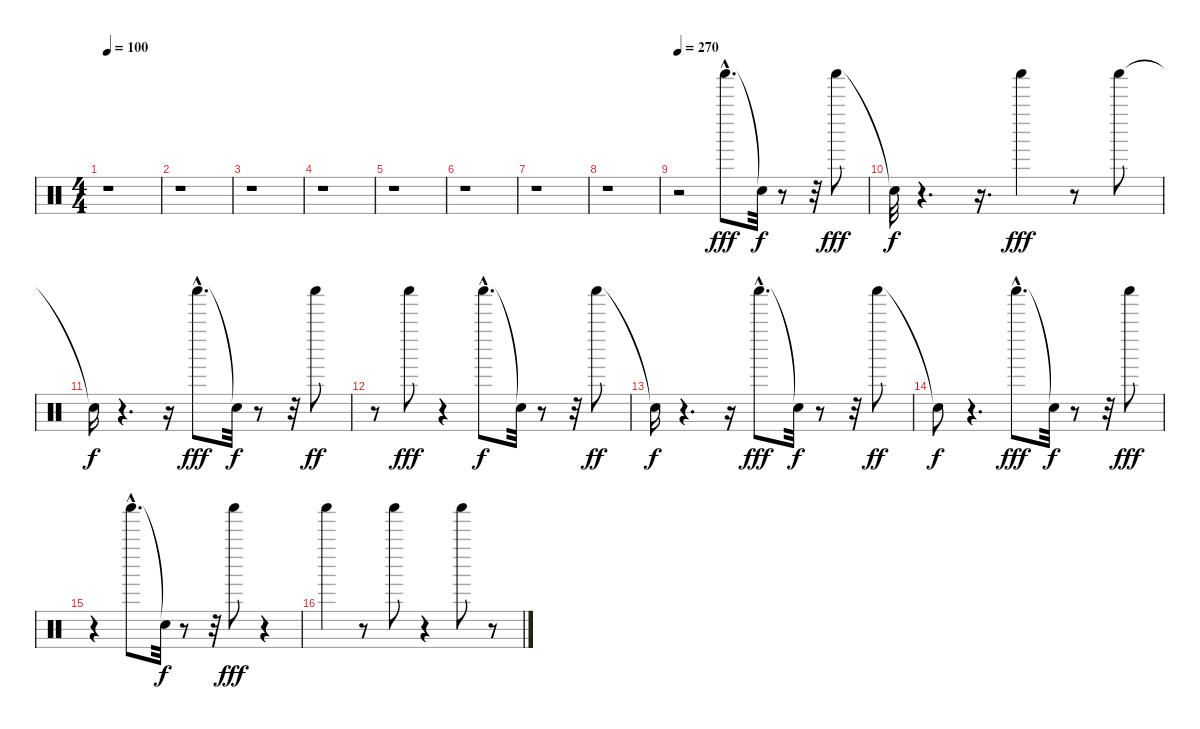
\track "" {instrument percussion}
\staff {score}
\articulation defaults
\ts (4 4)
\tempo 100
\clef neutral
\ks c
r.1{dy fff} |
r.1 |
r.1 |
r.1 |
r.1 |
r.1 |
r.1 |
r.1 |
\tempo 270
r.2 "Shaker (hit)"{hac}.8{d} "Snare (hit)"{t}.32{dy f} r.8 r.32 "Shaker (hit)".8{dy fff} |
"Snare (hit)"{t}.32{dy f} r.4{d} r.16{d} "Shaker (hit)".4{dy fff} r.8 "Shaker (hit)".8 |
"Snare (hit)"{t}.16{dy f} r.4{d} r.16 "Shaker (hit)"{hac}.8{d dy fff} "Snare (hit)"{t}.32{dy f} r.8 r.32 "Shaker (hit)".8{dy ff} |
r.8 "Shaker (hit)".8{dy fff} r.4 "Shaker (hit)"{hac}.8{d dy f} "Snare (hit)"{t}.32 r.8 r.32 "Shaker (hit)".8{dy ff} |
"Snare (hit)"{t}.16{dy f} r.4{d} r.16 "Shaker (hit)"{hac}.8{d dy fff} "Snare (hit)"{t}.32{dy f} r.8 r.32 "Shaker (hit)".8{dy ff} |
"Snare (hit)"{t}.8{dy f} r.4{d} "Shaker (hit)"{hac}.8{d dy fff} "Snare (hit)"{t}.32{dy f} r.8 r.32 "Shaker (hit)".8{dy fff} |
r.4 "Shaker (hit)"{hac}.8{d} "Snare (hit)"{t}.32{dy f} r.8 r.32 "Shaker (hit)".8{dy fff} r.4 |
"Shaker (hit)".4 r.8 "Shaker (hit)".8 r.4 "Shaker (hit)".8 r.8
